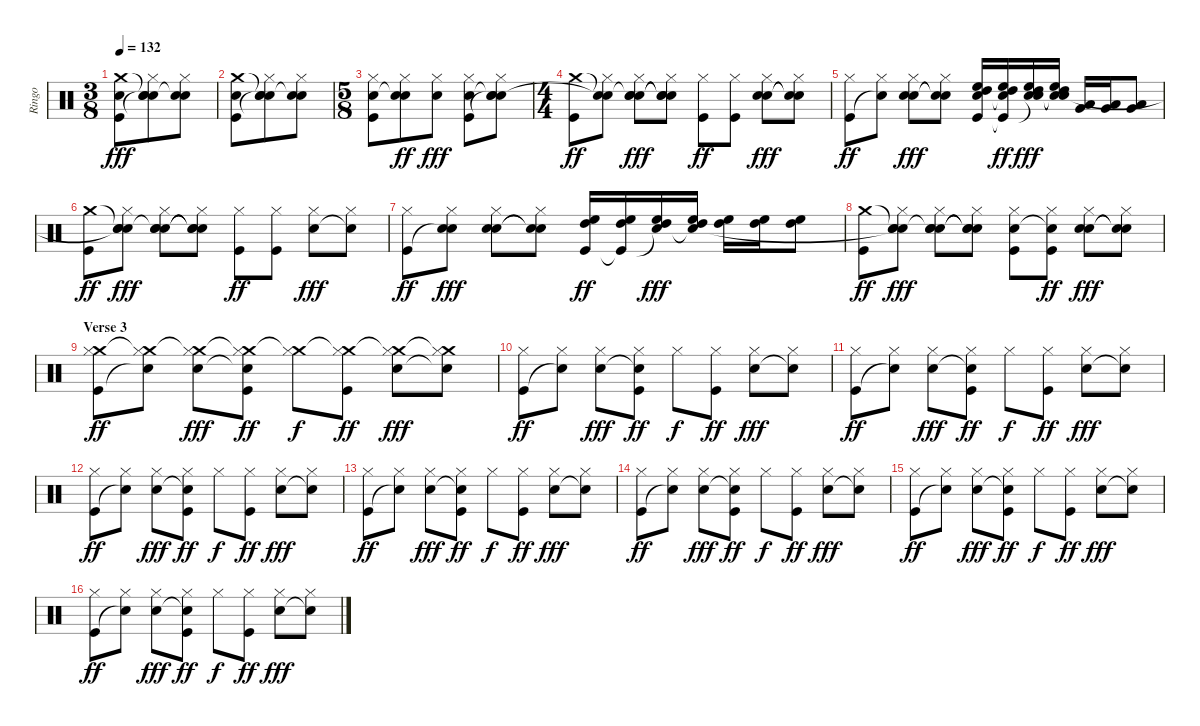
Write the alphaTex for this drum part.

\track ("Ringo" "Ringo") {instrument percussion}
\staff {score}
\articulation defaults
\ts (3 8)
\tempo 132
\clef neutral
\ks c
("Crash medium (hit)" "Electric Snare (hit)" "Kick (hit)").8{dy fff} ("Snare (hit)"{t} "Hi-Hat (closed)" "Snare (hit)"{t} "Hand Clap (hit)").8 ("Snare (hit)"{t} "Hi-Hat (closed)" "Hand Clap (hit)").8 |
("Crash medium (hit)" "Electric Snare (hit)" "Kick (hit)").8 ("Snare (hit)"{t} "Hi-Hat (closed)" "Snare (hit)"{t} "Hand Clap (hit)").8 ("Snare (hit)"{t} "Hi-Hat (closed)" "Hand Clap (hit)").8 |
\ts (5 8)
("Hi-Hat (closed)" "Electric Snare (hit)" "Kick (hit)").8 ("Hi-Hat (closed)" "Snare (hit)"{t} "Hand Clap (hit)").8{dy ff} ("Hi-Hat (closed)" "Hand Clap (hit)").8{dy fff} ("Hi-Hat (closed)" "Electric Snare (hit)" "Kick (hit)").8 ("Hi-Hat (closed)" "Snare (hit)"{t} "Snare (hit)"{t} "Hand Clap (hit)").8 |
\ts (4 4)
("Crash medium (hit)" "Kick (hit)").8{dy ff} ("Snare (hit)"{t} "Hi-Hat (closed)" "Snare (hit)"{t}).8 ("Snare (hit)"{t} "Hi-Hat (closed)" "Electric Snare (hit)" "Hand Clap (hit)").8{dy fff} ("Snare (hit)"{t} "Hi-Hat (closed)" "Snare (hit)"{t} "Snare (hit)"{t}).8 ("Hi-Hat (closed)" "Kick (hit)").8{dy ff} ("Hi-Hat (closed)" "Kick (hit)").8 ("Hi-Hat (closed)" "Electric Snare (hit)" "Hand Clap (hit)").8{dy fff} ("Hi-Hat (closed)" "Snare (hit)"{t} "Snare (hit)"{t}).8 |
("Hi-Hat (closed)" "Kick (hit)").8{dy ff} ("Hi-Hat (closed)" "Snare (hit)"{t}).8 ("Hi-Hat (closed)" "Electric Snare (hit)" "Hand Clap (hit)").8{dy fff} ("Hi-Hat (closed)" "Snare (hit)"{t} "Snare (hit)"{t}).8 ("High Tom (hit)" "High Floor Tom (hit)" "Kick (hit)" "Hand Clap (hit)").16 ("High Tom (hit)" "High Floor Tom (hit)" "Kick (hit)"{t} "Snare (hit)"{t}).16{dy ff} ("High Tom (hit)" "High Floor Tom (hit)" "Snare (hit)"{t} "Hand Clap (hit)").16{dy fff} ("High Tom (hit)" "High Floor Tom (hit)" "Snare (hit)"{t} "Snare (hit)"{t}).16 ("Very Low Tom (hit)" "Low Floor Tom (hit)").16 ("Very Low Tom (hit)" "Low Floor Tom (hit)").16 ("Very Low Tom (hit)" "Low Floor Tom (hit)").8 |
("Crash medium (hit)" "Kick (hit)").8{dy ff} ("Snare (hit)"{t} "Hi-Hat (closed)" "Snare (hit)"{t} "Hand Clap (hit)").8{dy fff} ("Snare (hit)"{t} "Hi-Hat (closed)" "Electric Snare (hit)" "Hand Clap (hit)").8 ("Snare (hit)"{t} "Hi-Hat (closed)" "Snare (hit)"{t} "Snare (hit)"{t}).8 ("Hi-Hat (closed)" "Kick (hit)").8{dy ff} ("Hi-Hat (closed)" "Kick (hit)").8 ("Hi-Hat (closed)" "Electric Snare (hit)").8{dy fff} ("Hi-Hat (closed)" "Snare (hit)"{t}).8 |
("Hi-Hat (closed)" "Kick (hit)").8{dy ff} ("Hi-Hat (closed)" "Snare (hit)"{t} "Hand Clap (hit)").8{dy fff} ("Hi-Hat (closed)" "Electric Snare (hit)" "Hand Clap (hit)").8 ("Hi-Hat (closed)" "Snare (hit)"{t} "Snare (hit)"{t}).8 ("High Tom (hit)" "High Floor Tom (hit)" "Kick (hit)").16{dy ff} ("High Tom (hit)" "High Floor Tom (hit)" "Kick (hit)"{t}).16 ("High Tom (hit)" "High Floor Tom (hit)" "Snare (hit)"{t}).16{dy fff} ("High Tom (hit)" "High Floor Tom (hit)" "Snare (hit)"{t}).16 ("High Tom (hit)" "High Floor Tom (hit)").16 ("High Tom (hit)" "High Floor Tom (hit)").16 ("High Tom (hit)" "High Floor Tom (hit)").8 |
("Crash medium (hit)" "Kick (hit)").8{dy ff} ("Snare (hit)"{t} "Hi-Hat (closed)" "Snare (hit)"{t} "Hand Clap (hit)").8{dy fff} ("Snare (hit)"{t} "Hi-Hat (closed)" "Electric Snare (hit)" "Hand Clap (hit)").8 ("Snare (hit)"{t} "Hi-Hat (closed)" "Snare (hit)"{t} "Snare (hit)"{t}).8 ("Hi-Hat (closed)" "Kick (hit)" "Hand Clap (hit)").8 ("Hi-Hat (closed)" "Kick (hit)" "Snare (hit)"{t}).8{dy ff} ("Hi-Hat (closed)" "Electric Snare (hit)" "Hand Clap (hit)").8{dy fff} ("Hi-Hat (closed)" "Snare (hit)"{t} "Snare (hit)"{t}).8 |
\section ("" "Verse 3")
("Crash medium (hit)" "Hi-Hat (closed)" "Kick (hit)").8{dy ff} ("Crash medium (hit)"{t} "Hi-Hat (closed)" "Snare (hit)"{t}).8 ("Crash medium (hit)"{t} "Hi-Hat (closed)" "Snare (hit) 2").8{dy fff} ("Crash medium (hit)"{t} "Hi-Hat (closed)" "Snare (hit)"{t} "Kick (hit)").8{dy ff} ("Crash medium (hit)"{t} "Hi-Hat (closed)").8{dy f} ("Crash medium (hit)"{t} "Hi-Hat (closed)" "Kick (hit)").8{dy ff} ("Crash medium (hit)"{t} "Hi-Hat (closed)" "Snare (hit) 2").8{dy fff} ("Crash medium (hit)"{t} "Hi-Hat (closed)" "Snare (hit)"{t}).8 |
("Hi-Hat (closed)" "Kick (hit)").8{dy ff} ("Hi-Hat (closed)" "Snare (hit)"{t}).8 ("Hi-Hat (closed)" "Snare (hit) 2").8{dy fff} ("Hi-Hat (closed)" "Snare (hit)"{t} "Kick (hit)").8{dy ff} "Hi-Hat (closed)".8{dy f} ("Hi-Hat (closed)" "Kick (hit)").8{dy ff} ("Hi-Hat (closed)" "Snare (hit) 2").8{dy fff} ("Hi-Hat (closed)" "Snare (hit)"{t}).8 |
("Hi-Hat (closed)" "Kick (hit)").8{dy ff} ("Hi-Hat (closed)" "Snare (hit)"{t}).8 ("Hi-Hat (closed)" "Snare (hit) 2").8{dy fff} ("Hi-Hat (closed)" "Snare (hit)"{t} "Kick (hit)").8{dy ff} "Hi-Hat (closed)".8{dy f} ("Hi-Hat (closed)" "Kick (hit)").8{dy ff} ("Hi-Hat (closed)" "Snare (hit) 2").8{dy fff} ("Hi-Hat (closed)" "Snare (hit)"{t}).8 |
("Hi-Hat (closed)" "Kick (hit)").8{dy ff} ("Hi-Hat (closed)" "Snare (hit)"{t}).8 ("Hi-Hat (closed)" "Snare (hit) 2").8{dy fff} ("Hi-Hat (closed)" "Snare (hit)"{t} "Kick (hit)").8{dy ff} "Hi-Hat (closed)".8{dy f} ("Hi-Hat (closed)" "Kick (hit)").8{dy ff} ("Hi-Hat (closed)" "Snare (hit) 2").8{dy fff} ("Hi-Hat (closed)" "Snare (hit)"{t}).8 |
("Hi-Hat (closed)" "Kick (hit)").8{dy ff} ("Hi-Hat (closed)" "Snare (hit)"{t}).8 ("Hi-Hat (closed)" "Snare (hit) 2").8{dy fff} ("Hi-Hat (closed)" "Snare (hit)"{t} "Kick (hit)").8{dy ff} "Hi-Hat (closed)".8{dy f} ("Hi-Hat (closed)" "Kick (hit)").8{dy ff} ("Hi-Hat (closed)" "Snare (hit) 2").8{dy fff} ("Hi-Hat (closed)" "Snare (hit)"{t}).8 |
("Hi-Hat (closed)" "Kick (hit)").8{dy ff} ("Hi-Hat (closed)" "Snare (hit)"{t}).8 ("Hi-Hat (closed)" "Snare (hit) 2").8{dy fff} ("Hi-Hat (closed)" "Snare (hit)"{t} "Kick (hit)").8{dy ff} "Hi-Hat (closed)".8{dy f} ("Hi-Hat (closed)" "Kick (hit)").8{dy ff} ("Hi-Hat (closed)" "Snare (hit) 2").8{dy fff} ("Hi-Hat (closed)" "Snare (hit)"{t}).8 |
("Hi-Hat (closed)" "Kick (hit)").8{dy ff} ("Hi-Hat (closed)" "Snare (hit)"{t}).8 ("Hi-Hat (closed)" "Snare (hit) 2").8{dy fff} ("Hi-Hat (closed)" "Snare (hit)"{t} "Kick (hit)").8{dy ff} "Hi-Hat (closed)".8{dy f} ("Hi-Hat (closed)" "Kick (hit)").8{dy ff} ("Hi-Hat (closed)" "Snare (hit) 2").8{dy fff} ("Hi-Hat (closed)" "Snare (hit)"{t}).8 |
("Hi-Hat (closed)" "Kick (hit)").8{dy ff} ("Hi-Hat (closed)" "Snare (hit)"{t}).8 ("Hi-Hat (closed)" "Snare (hit) 2").8{dy fff} ("Hi-Hat (closed)" "Snare (hit)"{t} "Kick (hit)").8{dy ff} "Hi-Hat (closed)".8{dy f} ("Hi-Hat (closed)" "Kick (hit)").8{dy ff} ("Hi-Hat (closed)" "Snare (hit) 2").8{dy fff} ("Hi-Hat (closed)" "Snare (hit)"{t}).8
